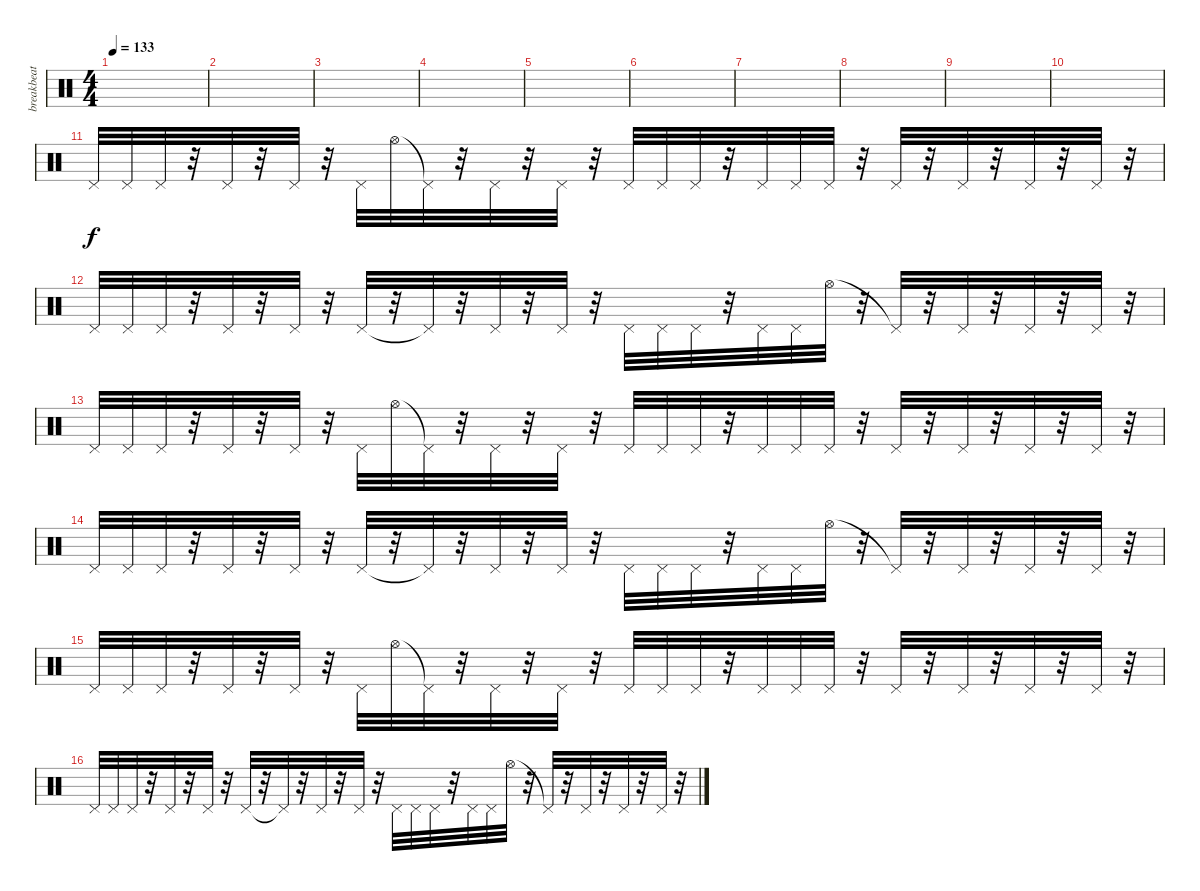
\track ("breakbeat" "breakbeat") {instrument percussion}
\staff {score}
\articulation defaults
\ts (4 4)
\tempo 133
\clef neutral
\ks c
|
|
|
|
|
|
|
|
|
|
"Pedal Hi-Hat (hit)".32 "Pedal Hi-Hat (hit)".32 "Pedal Hi-Hat (hit)".32 r.32 "Pedal Hi-Hat (hit)".32 r.32 "Pedal Hi-Hat (hit)".32 r.32 "Pedal Hi-Hat (hit)".32 "Hi-Hat (open)".32 "Pedal Hi-Hat (hit)"{t}.32 r.32 "Pedal Hi-Hat (hit)".32 r.32 "Pedal Hi-Hat (hit)".32 r.32 "Pedal Hi-Hat (hit)".32 "Pedal Hi-Hat (hit)".32 "Pedal Hi-Hat (hit)".32 r.32 "Pedal Hi-Hat (hit)".32 "Pedal Hi-Hat (hit)".32 "Pedal Hi-Hat (hit)".32 r.32 "Pedal Hi-Hat (hit)".32 r.32 "Pedal Hi-Hat (hit)".32 r.32 "Pedal Hi-Hat (hit)".32 r.32 "Pedal Hi-Hat (hit)".32 r.32 |
"Pedal Hi-Hat (hit)".32 "Pedal Hi-Hat (hit)".32 "Pedal Hi-Hat (hit)".32 r.32 "Pedal Hi-Hat (hit)".32 r.32 "Pedal Hi-Hat (hit)".32 r.32 "Pedal Hi-Hat (hit)".32 r.32 "Pedal Hi-Hat (hit)"{t}.32 r.32 "Pedal Hi-Hat (hit)".32 r.32 "Pedal Hi-Hat (hit)".32 r.32 "Pedal Hi-Hat (hit)".32 "Pedal Hi-Hat (hit)".32 "Pedal Hi-Hat (hit)".32 r.32 "Pedal Hi-Hat (hit)".32 "Pedal Hi-Hat (hit)".32 "Hi-Hat (open)".32 r.32 "Pedal Hi-Hat (hit)"{t}.32 r.32 "Pedal Hi-Hat (hit)".32 r.32 "Pedal Hi-Hat (hit)".32 r.32 "Pedal Hi-Hat (hit)".32 r.32 |
"Pedal Hi-Hat (hit)".32 "Pedal Hi-Hat (hit)".32 "Pedal Hi-Hat (hit)".32 r.32 "Pedal Hi-Hat (hit)".32 r.32 "Pedal Hi-Hat (hit)".32 r.32 "Pedal Hi-Hat (hit)".32 "Hi-Hat (open)".32 "Pedal Hi-Hat (hit)"{t}.32 r.32 "Pedal Hi-Hat (hit)".32 r.32 "Pedal Hi-Hat (hit)".32 r.32 "Pedal Hi-Hat (hit)".32 "Pedal Hi-Hat (hit)".32 "Pedal Hi-Hat (hit)".32 r.32 "Pedal Hi-Hat (hit)".32 "Pedal Hi-Hat (hit)".32 "Pedal Hi-Hat (hit)".32 r.32 "Pedal Hi-Hat (hit)".32 r.32 "Pedal Hi-Hat (hit)".32 r.32 "Pedal Hi-Hat (hit)".32 r.32 "Pedal Hi-Hat (hit)".32 r.32 |
"Pedal Hi-Hat (hit)".32 "Pedal Hi-Hat (hit)".32 "Pedal Hi-Hat (hit)".32 r.32 "Pedal Hi-Hat (hit)".32 r.32 "Pedal Hi-Hat (hit)".32 r.32 "Pedal Hi-Hat (hit)".32 r.32 "Pedal Hi-Hat (hit)"{t}.32 r.32 "Pedal Hi-Hat (hit)".32 r.32 "Pedal Hi-Hat (hit)".32 r.32 "Pedal Hi-Hat (hit)".32 "Pedal Hi-Hat (hit)".32 "Pedal Hi-Hat (hit)".32 r.32 "Pedal Hi-Hat (hit)".32 "Pedal Hi-Hat (hit)".32 "Hi-Hat (open)".32 r.32 "Pedal Hi-Hat (hit)"{t}.32 r.32 "Pedal Hi-Hat (hit)".32 r.32 "Pedal Hi-Hat (hit)".32 r.32 "Pedal Hi-Hat (hit)".32 r.32 |
"Pedal Hi-Hat (hit)".32 "Pedal Hi-Hat (hit)".32 "Pedal Hi-Hat (hit)".32 r.32 "Pedal Hi-Hat (hit)".32 r.32 "Pedal Hi-Hat (hit)".32 r.32 "Pedal Hi-Hat (hit)".32 "Hi-Hat (open)".32 "Pedal Hi-Hat (hit)"{t}.32 r.32 "Pedal Hi-Hat (hit)".32 r.32 "Pedal Hi-Hat (hit)".32 r.32 "Pedal Hi-Hat (hit)".32 "Pedal Hi-Hat (hit)".32 "Pedal Hi-Hat (hit)".32 r.32 "Pedal Hi-Hat (hit)".32 "Pedal Hi-Hat (hit)".32 "Pedal Hi-Hat (hit)".32 r.32 "Pedal Hi-Hat (hit)".32 r.32 "Pedal Hi-Hat (hit)".32 r.32 "Pedal Hi-Hat (hit)".32 r.32 "Pedal Hi-Hat (hit)".32 r.32 |
"Pedal Hi-Hat (hit)".32 "Pedal Hi-Hat (hit)".32 "Pedal Hi-Hat (hit)".32 r.32 "Pedal Hi-Hat (hit)".32 r.32 "Pedal Hi-Hat (hit)".32 r.32 "Pedal Hi-Hat (hit)".32 r.32 "Pedal Hi-Hat (hit)"{t}.32 r.32 "Pedal Hi-Hat (hit)".32 r.32 "Pedal Hi-Hat (hit)".32 r.32 "Pedal Hi-Hat (hit)".32 "Pedal Hi-Hat (hit)".32 "Pedal Hi-Hat (hit)".32 r.32 "Pedal Hi-Hat (hit)".32 "Pedal Hi-Hat (hit)".32 "Hi-Hat (open)".32 r.32 "Pedal Hi-Hat (hit)"{t}.32 r.32 "Pedal Hi-Hat (hit)".32 r.32 "Pedal Hi-Hat (hit)".32 r.32 "Pedal Hi-Hat (hit)".32 r.32
